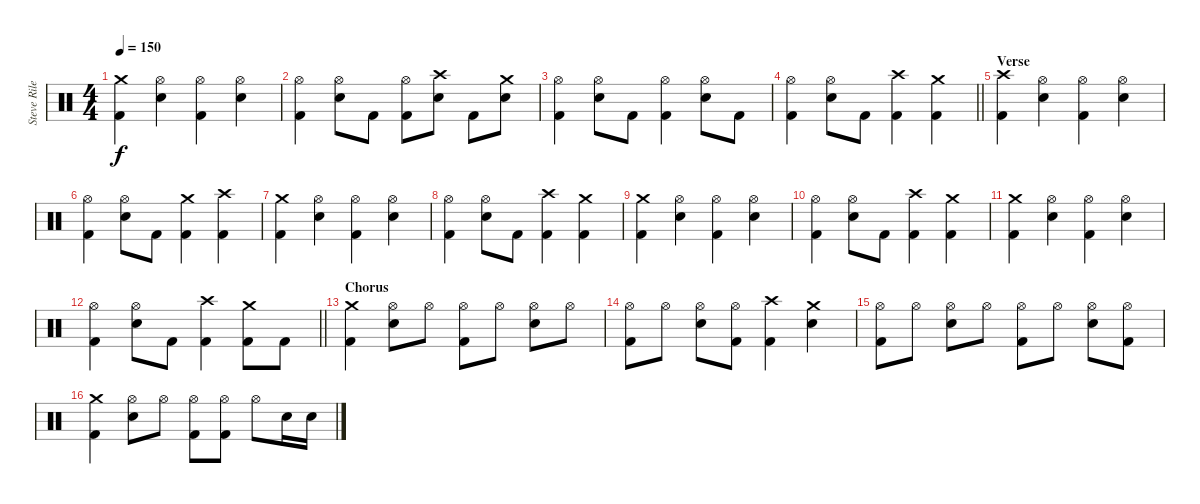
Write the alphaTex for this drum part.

\track ("Steve Riley" "Steve Rile") {instrument percussion}
\staff {score}
\articulation defaults
\ts (4 4)
\section ("" "")
\tempo 150
\clef neutral
\ks c
("Crash medium (hit)" "Kick (hit) 2").4{dy f} ("Hi-Hat (open)" "Snare (hit) 2").4 ("Hi-Hat (open)" "Kick (hit) 2").4 ("Hi-Hat (open)" "Snare (hit) 2").4 |
("Hi-Hat (open)" "Kick (hit) 2").4 ("Hi-Hat (open)" "Snare (hit) 2").8 "Kick (hit) 2".8 ("Hi-Hat (open)" "Kick (hit) 2").8 ("Crash high (hit)" "Snare (hit) 2").8 "Kick (hit) 2".8 ("Crash medium (hit)" "Snare (hit) 2").8 |
("Hi-Hat (open)" "Kick (hit) 2").4 ("Hi-Hat (open)" "Snare (hit) 2").8 "Kick (hit) 2".8 ("Hi-Hat (open)" "Kick (hit) 2").4 ("Hi-Hat (open)" "Snare (hit) 2").8 "Kick (hit) 2".8 |
\barLineRight lightlight
("Hi-Hat (open)" "Kick (hit) 2").4 ("Hi-Hat (open)" "Snare (hit) 2").8 "Kick (hit) 2".8 ("Crash high (hit)" "Kick (hit) 2").4 ("Crash medium (hit)" "Kick (hit) 2").4 |
\section ("" "Verse")
("Crash high (hit)" "Kick (hit) 2").4 ("Hi-Hat (open)" "Snare (hit) 2").4 ("Hi-Hat (open)" "Kick (hit) 2").4 ("Hi-Hat (open)" "Snare (hit) 2").4 |
("Hi-Hat (open)" "Kick (hit) 2").4 ("Hi-Hat (open)" "Snare (hit) 2").8 "Kick (hit) 2".8 ("Crash medium (hit)" "Kick (hit) 2").4 ("Crash high (hit)" "Kick (hit) 2").4 |
("Crash medium (hit)" "Kick (hit) 2").4 ("Hi-Hat (open)" "Snare (hit) 2").4 ("Hi-Hat (open)" "Kick (hit) 2").4 ("Hi-Hat (open)" "Snare (hit) 2").4 |
("Hi-Hat (open)" "Kick (hit) 2").4 ("Hi-Hat (open)" "Snare (hit) 2").8 "Kick (hit) 2".8 ("Crash high (hit)" "Kick (hit) 2").4 ("Crash medium (hit)" "Kick (hit) 2").4 |
("Crash medium (hit)" "Kick (hit) 2").4 ("Hi-Hat (open)" "Snare (hit) 2").4 ("Hi-Hat (open)" "Kick (hit) 2").4 ("Hi-Hat (open)" "Snare (hit) 2").4 |
("Hi-Hat (open)" "Kick (hit) 2").4 ("Hi-Hat (open)" "Snare (hit) 2").8 "Kick (hit) 2".8 ("Crash high (hit)" "Kick (hit) 2").4 ("Crash medium (hit)" "Kick (hit) 2").4 |
("Crash medium (hit)" "Kick (hit) 2").4 ("Hi-Hat (open)" "Snare (hit) 2").4 ("Hi-Hat (open)" "Kick (hit) 2").4 ("Hi-Hat (open)" "Snare (hit) 2").4 |
\barLineRight lightlight
("Hi-Hat (open)" "Kick (hit) 2").4 ("Hi-Hat (open)" "Snare (hit) 2").8 "Kick (hit) 2".8 ("Crash high (hit)" "Kick (hit) 2").4 ("Crash medium (hit)" "Kick (hit) 2").8 "Kick (hit) 2".8 |
\section ("" "Chorus")
("Crash medium (hit)" "Kick (hit) 2").4 ("Hi-Hat (open)" "Snare (hit) 2").8 "Hi-Hat (open)".8 ("Hi-Hat (open)" "Kick (hit) 2").8 "Hi-Hat (open)".8 ("Hi-Hat (open)" "Snare (hit) 2").8 "Hi-Hat (open)".8 |
("Hi-Hat (open)" "Kick (hit) 2").8 "Hi-Hat (open)".8 ("Hi-Hat (open)" "Snare (hit) 2").8 ("Hi-Hat (open)" "Kick (hit) 2").8 ("Crash high (hit)" "Kick (hit) 2").4 ("Crash medium (hit)" "Snare (hit) 2").4 |
("Hi-Hat (open)" "Kick (hit) 2").8 "Hi-Hat (open)".8 ("Hi-Hat (open)" "Snare (hit) 2").8 "Hi-Hat (open)".8 ("Hi-Hat (open)" "Kick (hit) 2").8 "Hi-Hat (open)".8 ("Hi-Hat (open)" "Snare (hit) 2").8 ("Hi-Hat (open)" "Kick (hit) 2").8 |
("Crash medium (hit)" "Kick (hit) 2").4 ("Hi-Hat (open)" "Snare (hit) 2").8 "Hi-Hat (open)".8 ("Hi-Hat (open)" "Kick (hit) 2").8 ("Hi-Hat (open)" "Kick (hit) 2").8 "Hi-Hat (open)".8 "Snare (hit) 2".16 "Snare (hit) 2".16
